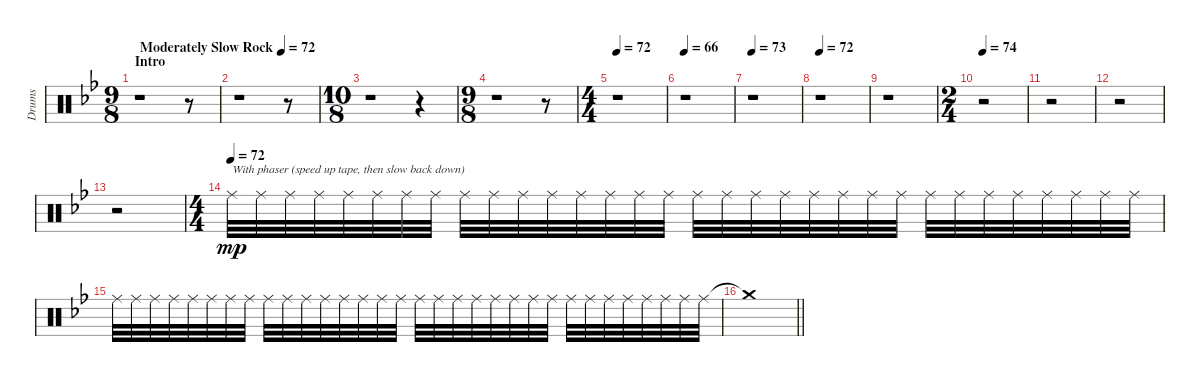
\track ("Drums" "Drums") {instrument percussion}
\staff {score}
\articulation defaults
\ts (9 8)
\section ("" "Intro")
\tempo (72 "Moderately Slow Rock")
\clef neutral
\ks bb
r.1{dy mp} r.8 |
r.1 r.8 |
\ts (10 8)
r.1 r.4 |
\ts (9 8)
r.1 r.8 |
\ts (4 4)
\tempo 72
r.1 |
\tempo 66
r.1 |
\tempo 73
r.1 |
\tempo 72
r.1 |
r.1 |
\ts (2 4)
\tempo 74
r.2 |
r.2 |
r.2 |
r.2 |
\ts (4 4)
\tempo (72)
"Ride (middle)".32{txt "With phaser (speed up tape, then slow back down)" volume 0} "Ride (middle)".32{volume 8} "Ride (middle)".32 "Ride (middle)".32 "Ride (middle)".32 "Ride (middle)".32 "Ride (middle)".32 "Ride (middle)".32 "Ride (middle)".32 "Ride (middle)".32 "Ride (middle)".32 "Ride (middle)".32 "Ride (middle)".32 "Ride (middle)".32 "Ride (middle)".32 "Ride (middle)".32 "Ride (middle)".32 "Ride (middle)".32 "Ride (middle)".32 "Ride (middle)".32 "Ride (middle)".32 "Ride (middle)".32 "Ride (middle)".32 "Ride (middle)".32 "Ride (middle)".32 "Ride (middle)".32 "Ride (middle)".32 "Ride (middle)".32 "Ride (middle)".32 "Ride (middle)".32 "Ride (middle)".32 "Ride (middle)".32 |
"Ride (middle)".32{volume 0} "Ride (middle)".32 "Ride (middle)".32 "Ride (middle)".32 "Ride (middle)".32 "Ride (middle)".32 "Ride (middle)".32 "Ride (middle)".32 "Ride (middle)".32 "Ride (middle)".32 "Ride (middle)".32 "Ride (middle)".32 "Ride (middle)".32 "Ride (middle)".32 "Ride (middle)".32 "Ride (middle)".32 "Ride (middle)".32 "Ride (middle)".32 "Ride (middle)".32 "Ride (middle)".32 "Ride (middle)".32 "Ride (middle)".32 "Ride (middle)".32 "Ride (middle)".32 "Ride (middle)".32 "Ride (middle)".32 "Ride (middle)".32 "Ride (middle)".32 "Ride (middle)".32 "Ride (middle)".32 "Ride (middle)".32 "Ride (middle)".32 |
\barLineRight lightlight "Crash medium (hit)"{t}.1
